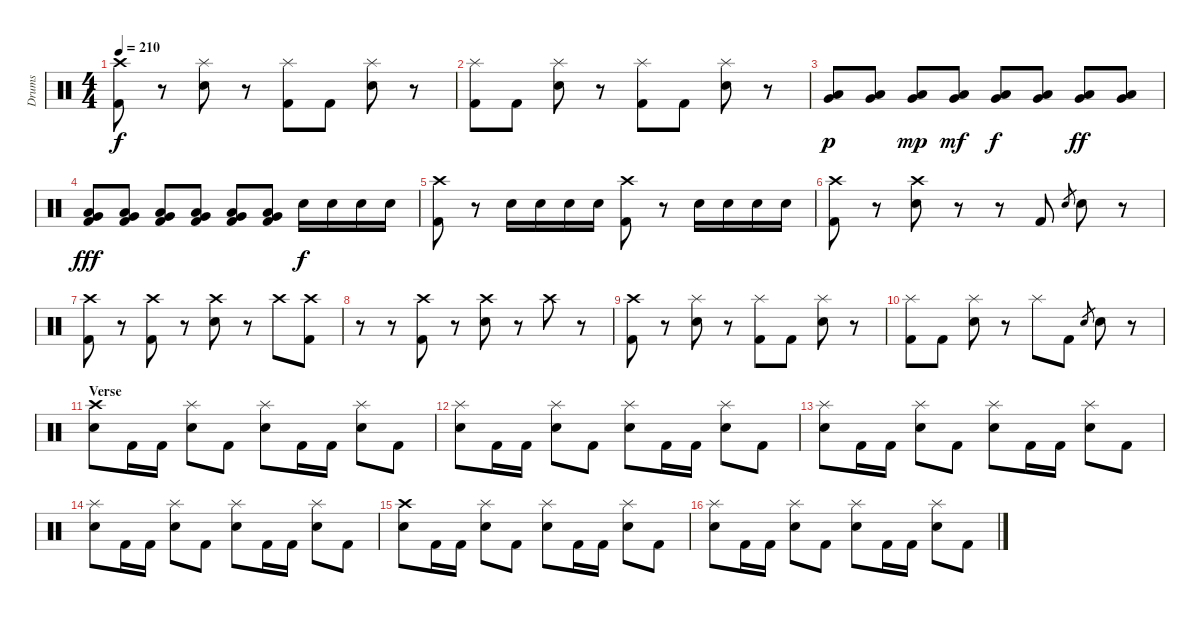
\track ("Drums" "Drums") {instrument percussion}
\staff {score}
\articulation defaults
\ts (4 4)
\tempo 210
\clef neutral
\ks c
("Crash high (hit)" "Kick (hit) 2").8{dy f} r.8 ("Splash (hit)" "Electric Snare (hit)").8 r.8 ("Splash (hit)" "Kick (hit) 2").8 "Kick (hit) 2".8 ("Splash (hit)" "Electric Snare (hit)").8 r.8 |
("Splash (hit)" "Kick (hit) 2").8 "Kick (hit) 2".8 ("Splash (hit)" "Electric Snare (hit)").8 r.8 ("Splash (hit)" "Kick (hit) 2").8 "Kick (hit) 2".8 ("Splash (hit)" "Electric Snare (hit)").8 r.8 |
("Very Low Tom (hit)" "Low Floor Tom (hit)").8{dy p} ("Very Low Tom (hit)" "Low Floor Tom (hit)").8 ("Very Low Tom (hit)" "Low Floor Tom (hit)").8{dy mp} ("Very Low Tom (hit)" "Low Floor Tom (hit)").8{dy mf} ("Very Low Tom (hit)" "Low Floor Tom (hit)").8{dy f} ("Very Low Tom (hit)" "Low Floor Tom (hit)").8 ("Very Low Tom (hit)" "Low Floor Tom (hit)").8{dy ff} ("Very Low Tom (hit)" "Low Floor Tom (hit)").8 |
("Very Low Tom (hit)" "Low Floor Tom (hit)" "Kick (hit) 2").8{dy fff} ("Very Low Tom (hit)" "Low Floor Tom (hit)" "Kick (hit) 2").8 ("Very Low Tom (hit)" "Low Floor Tom (hit)" "Kick (hit) 2").8 ("Very Low Tom (hit)" "Low Floor Tom (hit)" "Kick (hit) 2").8 ("Very Low Tom (hit)" "Low Floor Tom (hit)" "Kick (hit) 2").8 ("Very Low Tom (hit)" "Low Floor Tom (hit)" "Kick (hit) 2").8 "Electric Snare (hit)".16{dy f} "Electric Snare (hit)".16 "Electric Snare (hit)".16 "Electric Snare (hit)".16 |
("Crash high (hit)" "Kick (hit) 2").8 r.8 "Electric Snare (hit)".16 "Electric Snare (hit)".16 "Electric Snare (hit)".16 "Electric Snare (hit)".16 ("Crash high (hit)" "Kick (hit) 2").8 r.8 "Electric Snare (hit)".16 "Electric Snare (hit)".16 "Electric Snare (hit)".16 "Electric Snare (hit)".16 |
("Crash high (hit)" "Kick (hit) 2").8 r.8 ("Crash high (hit)" "Electric Snare (hit)").8 r.8 r.8 "Kick (hit) 2".8 "Electric Snare (hit)".8{gr} "Electric Snare (hit)".8 r.8 |
("Crash high (hit)" "Kick (hit) 2").8 r.8 ("Crash high (hit)" "Kick (hit) 2").8 r.8 ("Crash high (hit)" "Electric Snare (hit)").8 r.8 "Crash high (hit)".8 ("Crash high (hit)" "Kick (hit) 2").8 |
r.8 r.8 ("Crash high (hit)" "Kick (hit) 2").8 r.8 ("Crash high (hit)" "Electric Snare (hit)").8 r.8 "Crash high (hit)".8 r.8 |
("Crash high (hit)" "Kick (hit) 2").8 r.8 ("Splash (hit)" "Electric Snare (hit)").8 r.8 ("Splash (hit)" "Kick (hit) 2").8 "Kick (hit) 2".8 ("Splash (hit)" "Electric Snare (hit)").8 r.8 |
("Splash (hit)" "Kick (hit) 2").8 "Kick (hit) 2".8 ("Splash (hit)" "Electric Snare (hit)").8 r.8 "Splash (hit)".8 "Kick (hit) 2".8 "Electric Snare (hit)".8{gr} "Electric Snare (hit)".8 r.8 |
\section ("" "Verse")
("Crash high (hit)" "Electric Snare (hit)").8 "Kick (hit) 2".16 "Kick (hit) 2".16 ("Splash (hit)" "Electric Snare (hit)").8 "Kick (hit) 2".8 ("Splash (hit)" "Electric Snare (hit)").8 "Kick (hit) 2".16 "Kick (hit) 2".16 ("Splash (hit)" "Electric Snare (hit)").8 "Kick (hit) 2".8 |
("Splash (hit)" "Electric Snare (hit)").8 "Kick (hit) 2".16 "Kick (hit) 2".16 ("Splash (hit)" "Electric Snare (hit)").8 "Kick (hit) 2".8 ("Splash (hit)" "Electric Snare (hit)").8 "Kick (hit) 2".16 "Kick (hit) 2".16 ("Splash (hit)" "Electric Snare (hit)").8 "Kick (hit) 2".8 |
("Splash (hit)" "Electric Snare (hit)").8 "Kick (hit) 2".16 "Kick (hit) 2".16 ("Splash (hit)" "Electric Snare (hit)").8 "Kick (hit) 2".8 ("Splash (hit)" "Electric Snare (hit)").8 "Kick (hit) 2".16 "Kick (hit) 2".16 ("Splash (hit)" "Electric Snare (hit)").8 "Kick (hit) 2".8 |
("Splash (hit)" "Electric Snare (hit)").8 "Kick (hit) 2".16 "Kick (hit) 2".16 ("Splash (hit)" "Electric Snare (hit)").8 "Kick (hit) 2".8 ("Splash (hit)" "Electric Snare (hit)").8 "Kick (hit) 2".16 "Kick (hit) 2".16 ("Splash (hit)" "Electric Snare (hit)").8 "Kick (hit) 2".8 |
("Crash high (hit)" "Electric Snare (hit)").8 "Kick (hit) 2".16 "Kick (hit) 2".16 ("Splash (hit)" "Electric Snare (hit)").8 "Kick (hit) 2".8 ("Splash (hit)" "Electric Snare (hit)").8 "Kick (hit) 2".16 "Kick (hit) 2".16 ("Splash (hit)" "Electric Snare (hit)").8 "Kick (hit) 2".8 |
("Splash (hit)" "Electric Snare (hit)").8 "Kick (hit) 2".16 "Kick (hit) 2".16 ("Splash (hit)" "Electric Snare (hit)").8 "Kick (hit) 2".8 ("Splash (hit)" "Electric Snare (hit)").8 "Kick (hit) 2".16 "Kick (hit) 2".16 ("Splash (hit)" "Electric Snare (hit)").8 "Kick (hit) 2".8
